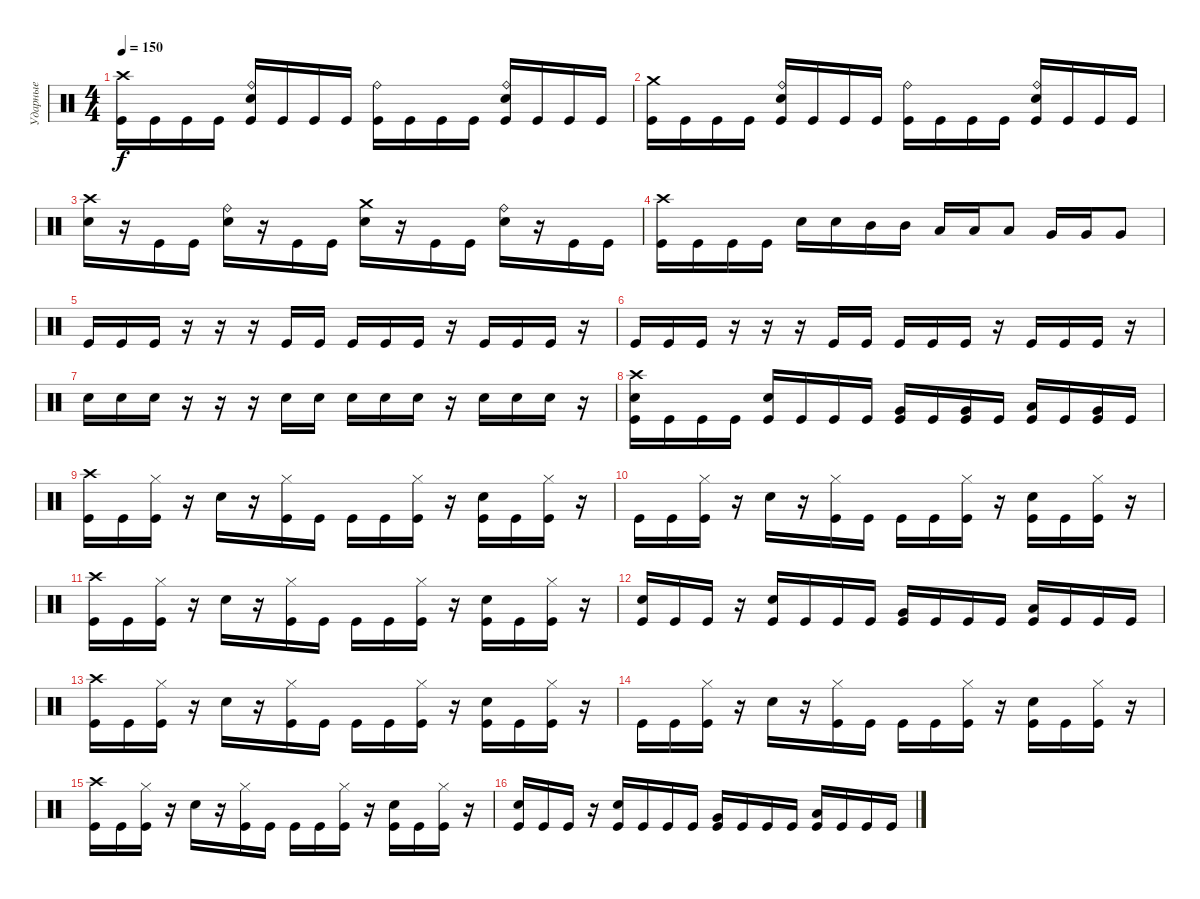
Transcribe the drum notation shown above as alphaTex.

\track ("Ударные" "Ударные") {instrument percussion}
\staff {score}
\articulation defaults
\ts (4 4)
\tempo 150
\clef neutral
\ks c
("Crash high (hit)" "Kick (hit)").16{dy f} "Kick (hit)".16 "Kick (hit)".16 "Kick (hit)".16 ("Ride (bell)" "Electric Snare (hit)" "Kick (hit)").16 "Kick (hit)".16 "Kick (hit)".16 "Kick (hit)".16 ("Ride (bell)" "Kick (hit)").16 "Kick (hit)".16 "Kick (hit)".16 "Kick (hit)".16 ("Ride (bell)" "Electric Snare (hit)" "Kick (hit)").16 "Kick (hit)".16 "Kick (hit)".16 "Kick (hit)".16 |
("Crash medium (hit)" "Kick (hit)").16 "Kick (hit)".16 "Kick (hit)".16 "Kick (hit)".16 ("Ride (bell)" "Electric Snare (hit)" "Kick (hit)").16 "Kick (hit)".16 "Kick (hit)".16 "Kick (hit)".16 ("Ride (bell)" "Kick (hit)").16 "Kick (hit)".16 "Kick (hit)".16 "Kick (hit)".16 ("Ride (bell)" "Electric Snare (hit)" "Kick (hit)").16 "Kick (hit)".16 "Kick (hit)".16 "Kick (hit)".16 |
("Crash high (hit)" "Electric Snare (hit)").16 r.16 "Kick (hit)".16 "Kick (hit)".16 ("Ride (bell)" "Electric Snare (hit)").16 r.16 "Kick (hit)".16 "Kick (hit)".16 ("Crash medium (hit)" "Electric Snare (hit)").16 r.16 "Kick (hit)".16 "Kick (hit)".16 ("Ride (bell)" "Electric Snare (hit)").16 r.16 "Kick (hit)".16 "Kick (hit)".16 |
("Crash high (hit)" "Kick (hit)").16 "Kick (hit)".16 "Kick (hit)".16 "Kick (hit)".16 "Electric Snare (hit)".16 "Electric Snare (hit)".16 "Mid Tom (hit)".16 "Mid Tom (hit)".16 "Low Tom (hit)".16 "Low Tom (hit)".16 "Low Tom (hit)".8 "Very Low Tom (hit)".16 "Very Low Tom (hit)".16 "Very Low Tom (hit)".8 |
"Kick (hit)".16 "Kick (hit)".16 "Kick (hit)".16 r.16 r.16 r.16 "Kick (hit)".16 "Kick (hit)".16 "Kick (hit)".16 "Kick (hit)".16 "Kick (hit)".16 r.16 "Kick (hit)".16 "Kick (hit)".16 "Kick (hit)".16 r.16 |
"Kick (hit)".16 "Kick (hit)".16 "Kick (hit)".16 r.16 r.16 r.16 "Kick (hit)".16 "Kick (hit)".16 "Kick (hit)".16 "Kick (hit)".16 "Kick (hit)".16 r.16 "Kick (hit)".16 "Kick (hit)".16 "Kick (hit)".16 r.16 |
"Electric Snare (hit)".16 "Electric Snare (hit)".16 "Electric Snare (hit)".16 r.16 r.16 r.16 "Electric Snare (hit)".16 "Electric Snare (hit)".16 "Electric Snare (hit)".16 "Electric Snare (hit)".16 "Electric Snare (hit)".16 r.16 "Electric Snare (hit)".16 "Electric Snare (hit)".16 "Electric Snare (hit)".16 r.16 |
("Crash high (hit)" "Electric Snare (hit)" "Kick (hit)").16 "Kick (hit)".16 "Kick (hit)".16 "Kick (hit)".16 ("Electric Snare (hit)" "Kick (hit)").16 "Kick (hit)".16 "Kick (hit)".16 "Kick (hit)".16 ("Very Low Tom (hit)" "Kick (hit)").16 "Kick (hit)".16 ("Very Low Tom (hit)" "Kick (hit)").16 "Kick (hit)".16 ("Low Tom (hit)" "Kick (hit)").16 "Kick (hit)".16 ("Very Low Tom (hit)" "Kick (hit)").16 "Kick (hit)".16 |
("Crash high (hit)" "Kick (hit)").16 "Kick (hit)".16 ("Hi-Hat (closed)" "Kick (hit)").16 r.16 "Electric Snare (hit)".16 r.16 ("Hi-Hat (closed)" "Kick (hit)").16 "Kick (hit)".16 "Kick (hit)".16 "Kick (hit)".16 ("Hi-Hat (closed)" "Kick (hit)").16 r.16 ("Electric Snare (hit)" "Kick (hit)").16 "Kick (hit)".16 ("Hi-Hat (closed)" "Kick (hit)").16 r.16 |
"Kick (hit)".16 "Kick (hit)".16 ("Hi-Hat (closed)" "Kick (hit)").16 r.16 "Electric Snare (hit)".16 r.16 ("Hi-Hat (closed)" "Kick (hit)").16 "Kick (hit)".16 "Kick (hit)".16 "Kick (hit)".16 ("Hi-Hat (closed)" "Kick (hit)").16 r.16 ("Electric Snare (hit)" "Kick (hit)").16 "Kick (hit)".16 ("Hi-Hat (closed)" "Kick (hit)").16 r.16 |
("Crash high (hit)" "Kick (hit)").16 "Kick (hit)".16 ("Hi-Hat (closed)" "Kick (hit)").16 r.16 "Electric Snare (hit)".16 r.16 ("Hi-Hat (closed)" "Kick (hit)").16 "Kick (hit)".16 "Kick (hit)".16 "Kick (hit)".16 ("Hi-Hat (closed)" "Kick (hit)").16 r.16 ("Electric Snare (hit)" "Kick (hit)").16 "Kick (hit)".16 ("Hi-Hat (closed)" "Kick (hit)").16 r.16 |
("Electric Snare (hit)" "Kick (hit)").16 "Kick (hit)".16 "Kick (hit)".16 r.16 ("Electric Snare (hit)" "Kick (hit)").16 "Kick (hit)".16 "Kick (hit)".16 "Kick (hit)".16 ("Very Low Tom (hit)" "Kick (hit)").16 "Kick (hit)".16 "Kick (hit)".16 "Kick (hit)".16 ("Low Tom (hit)" "Kick (hit)").16 "Kick (hit)".16 "Kick (hit)".16 "Kick (hit)".16 |
("Crash high (hit)" "Kick (hit)").16 "Kick (hit)".16 ("Hi-Hat (closed)" "Kick (hit)").16 r.16 "Electric Snare (hit)".16 r.16 ("Hi-Hat (closed)" "Kick (hit)").16 "Kick (hit)".16 "Kick (hit)".16 "Kick (hit)".16 ("Hi-Hat (closed)" "Kick (hit)").16 r.16 ("Electric Snare (hit)" "Kick (hit)").16 "Kick (hit)".16 ("Hi-Hat (closed)" "Kick (hit)").16 r.16 |
"Kick (hit)".16 "Kick (hit)".16 ("Hi-Hat (closed)" "Kick (hit)").16 r.16 "Electric Snare (hit)".16 r.16 ("Hi-Hat (closed)" "Kick (hit)").16 "Kick (hit)".16 "Kick (hit)".16 "Kick (hit)".16 ("Hi-Hat (closed)" "Kick (hit)").16 r.16 ("Electric Snare (hit)" "Kick (hit)").16 "Kick (hit)".16 ("Hi-Hat (closed)" "Kick (hit)").16 r.16 |
("Crash high (hit)" "Kick (hit)").16 "Kick (hit)".16 ("Hi-Hat (closed)" "Kick (hit)").16 r.16 "Electric Snare (hit)".16 r.16 ("Hi-Hat (closed)" "Kick (hit)").16 "Kick (hit)".16 "Kick (hit)".16 "Kick (hit)".16 ("Hi-Hat (closed)" "Kick (hit)").16 r.16 ("Electric Snare (hit)" "Kick (hit)").16 "Kick (hit)".16 ("Hi-Hat (closed)" "Kick (hit)").16 r.16 |
("Electric Snare (hit)" "Kick (hit)").16 "Kick (hit)".16 "Kick (hit)".16 r.16 ("Electric Snare (hit)" "Kick (hit)").16 "Kick (hit)".16 "Kick (hit)".16 "Kick (hit)".16 ("Very Low Tom (hit)" "Kick (hit)").16 "Kick (hit)".16 "Kick (hit)".16 "Kick (hit)".16 ("Low Tom (hit)" "Kick (hit)").16 "Kick (hit)".16 "Kick (hit)".16 "Kick (hit)".16
